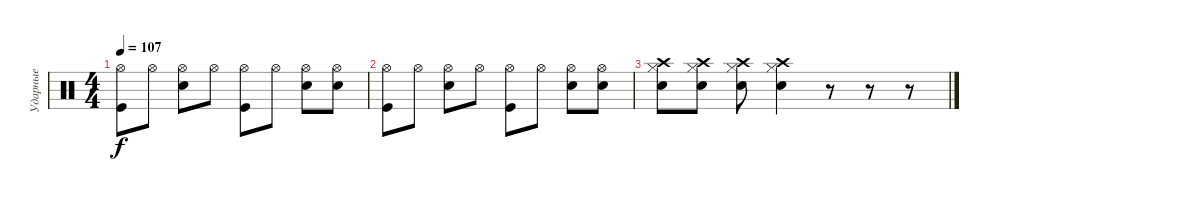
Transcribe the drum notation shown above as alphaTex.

\track ("Ударные" "Ударные") {instrument percussion}
\staff {score}
\articulation defaults
\ts (4 4)
\tempo 107
\clef neutral
\ks c
("Hi-Hat (open)" "Kick (hit)").8{dy f} "Hi-Hat (open)".8 ("Hi-Hat (open)" "Electric Snare (hit)").8 "Hi-Hat (open)".8 ("Hi-Hat (open)" "Kick (hit)").8 "Hi-Hat (open)".8 ("Hi-Hat (open)" "Electric Snare (hit)").8 ("Hi-Hat (open)" "Electric Snare (hit)").8 |
("Hi-Hat (open)" "Kick (hit)").8 "Hi-Hat (open)".8 ("Hi-Hat (open)" "Electric Snare (hit)").8 "Hi-Hat (open)".8 ("Hi-Hat (open)" "Kick (hit)").8 "Hi-Hat (open)".8 ("Hi-Hat (open)" "Electric Snare (hit)").8 ("Hi-Hat (open)" "Electric Snare (hit)").8 |
("Crash high (hit)" "Hi-Hat (closed)" "Electric Snare (hit)").8 ("Crash high (hit)" "Hi-Hat (closed)" "Electric Snare (hit)").8 ("Crash high (hit)" "Hi-Hat (closed)" "Electric Snare (hit)").8 ("Crash high (hit)" "Hi-Hat (closed)" "Electric Snare (hit)").4 r.8 r.8 r.8
